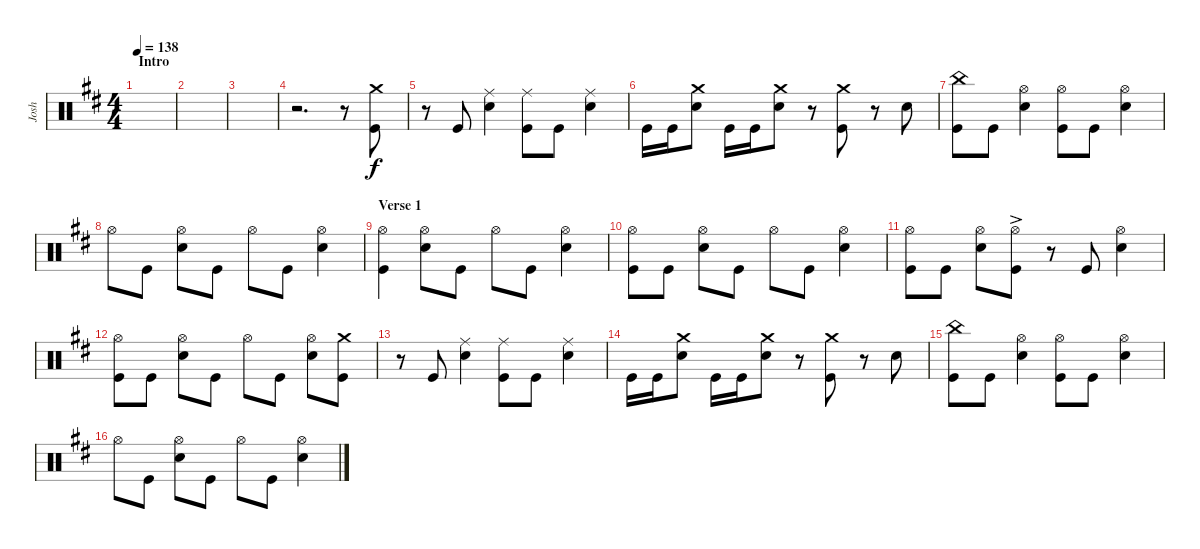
\track ("Josh" "Josh") {instrument percussion}
\staff {score}
\articulation defaults
\ts (4 4)
\section ("" "Intro")
\tempo 138
\clef neutral
\ks d
|
|
|
r.2{d} r.8 ("Kick (hit)" "Crash medium (hit)").8 |
r.8 "Kick (hit)".8 ("Snare (hit) 2" "Ride (middle)").4 ("Kick (hit)" "Ride (middle)").8 "Kick (hit)".8 ("Snare (hit) 2" "Ride (middle)").4 |
"Kick (hit)".16 "Kick (hit)".16 ("Snare (hit) 2" "Crash medium (hit)").8 "Kick (hit)".16 "Kick (hit)".16 ("Snare (hit) 2" "Crash medium (hit)").8 r.8 ("Kick (hit)" "Crash medium (hit)").8 r.8 "Snare (hit) 2".8 |
("China (hit)" "Kick (hit)").8 "Kick (hit)".8 ("Snare (hit) 2" "Hi-Hat (open)").4 ("Kick (hit)" "Hi-Hat (open)").8 "Kick (hit)".8 ("Snare (hit) 2" "Hi-Hat (open)").4 |
"Hi-Hat (open)".8 "Kick (hit)".8 ("Snare (hit) 2" "Hi-Hat (open)").8 "Kick (hit)".8 "Hi-Hat (open)".8 "Kick (hit)".8 ("Snare (hit) 2" "Hi-Hat (open)").4 |
\section ("" "Verse 1")
("Hi-Hat (open)" "Kick (hit)").4 ("Snare (hit) 2" "Hi-Hat (open)").8 "Kick (hit)".8 "Hi-Hat (open)".8 "Kick (hit)".8 ("Snare (hit) 2" "Hi-Hat (open)").4 |
("Kick (hit)" "Hi-Hat (open)").8 "Kick (hit)".8 ("Snare (hit) 2" "Hi-Hat (open)").8 "Kick (hit)".8 "Hi-Hat (open)".8 "Kick (hit)".8 ("Snare (hit) 2" "Hi-Hat (open)").4 |
("Kick (hit)" "Hi-Hat (open)").8 "Kick (hit)".8 ("Snare (hit) 2" "Hi-Hat (open)").8 ("Kick (hit)" "Hi-Hat (open)"{ac}).8 r.8 "Kick (hit)".8 ("Snare (hit) 2" "Hi-Hat (open)").4 |
("Kick (hit)" "Hi-Hat (open)").8 "Kick (hit)".8 ("Snare (hit) 2" "Hi-Hat (open)").8 "Kick (hit)".8 "Hi-Hat (open)".8 "Kick (hit)".8 ("Snare (hit) 2" "Hi-Hat (open)").8 ("Kick (hit)" "Crash medium (hit)").8 |
r.8 "Kick (hit)".8 ("Snare (hit) 2" "Ride (middle)").4 ("Kick (hit)" "Ride (middle)").8 "Kick (hit)".8 ("Snare (hit) 2" "Ride (middle)").4 |
"Kick (hit)".16 "Kick (hit)".16 ("Snare (hit) 2" "Crash medium (hit)").8 "Kick (hit)".16 "Kick (hit)".16 ("Snare (hit) 2" "Crash medium (hit)").8 r.8 ("Kick (hit)" "Crash medium (hit)").8 r.8 "Snare (hit) 2".8 |
("China (hit)" "Kick (hit)").8 "Kick (hit)".8 ("Snare (hit) 2" "Hi-Hat (open)").4 ("Kick (hit)" "Hi-Hat (open)").8 "Kick (hit)".8 ("Snare (hit) 2" "Hi-Hat (open)").4 |
"Hi-Hat (open)".8 "Kick (hit)".8 ("Snare (hit) 2" "Hi-Hat (open)").8 "Kick (hit)".8 "Hi-Hat (open)".8 "Kick (hit)".8 ("Snare (hit) 2" "Hi-Hat (open)").4
